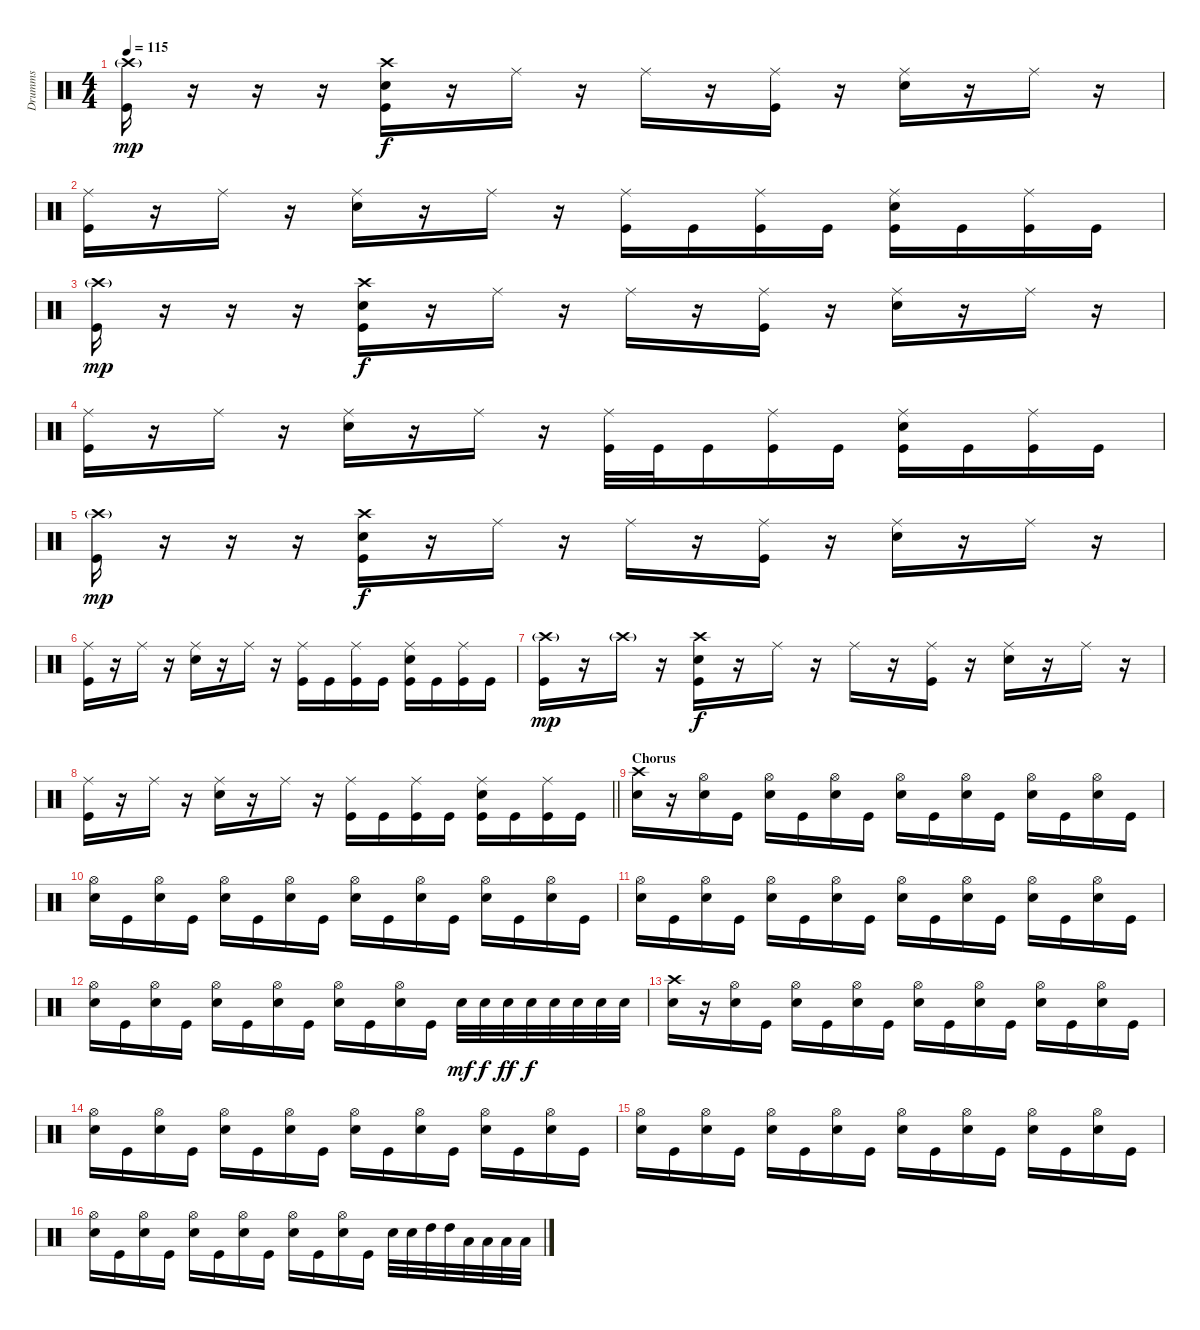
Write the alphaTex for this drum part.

\track ("Drumms" "Drumms") {instrument percussion}
\staff {score}
\articulation defaults
\ts (4 4)
\tempo 115
\clef neutral
\ks c
("Crash high (hit)"{g} "Kick (hit)").16{dy mp} r.16 r.16 r.16 ("Crash high (hit)" "Snare (hit) 2" "Kick (hit)").16{dy f} r.16 "Ride (middle)".16 r.16 "Ride (middle)".16 r.16 ("Ride (middle)" "Kick (hit)").16 r.16 ("Ride (middle)" "Snare (hit) 2").16 r.16 "Ride (middle)".16 r.16 |
("Ride (middle)" "Kick (hit)").16 r.16 "Ride (middle)".16 r.16 ("Ride (middle)" "Snare (hit) 2").16 r.16 "Ride (middle)".16 r.16 ("Ride (middle)" "Kick (hit)").16 "Kick (hit)".16 ("Ride (middle)" "Kick (hit)").16 "Kick (hit)".16 ("Ride (middle)" "Snare (hit) 2" "Kick (hit)").16 "Kick (hit)".16 ("Ride (middle)" "Kick (hit)").16 "Kick (hit)".16 |
("Crash high (hit)"{g} "Kick (hit)").16{dy mp} r.16 r.16 r.16 ("Crash high (hit)" "Snare (hit) 2" "Kick (hit)").16{dy f} r.16 "Ride (middle)".16 r.16 "Ride (middle)".16 r.16 ("Ride (middle)" "Kick (hit)").16 r.16 ("Ride (middle)" "Snare (hit) 2").16 r.16 "Ride (middle)".16 r.16 |
("Ride (middle)" "Kick (hit)").16 r.16 "Ride (middle)".16 r.16 ("Ride (middle)" "Snare (hit) 2").16 r.16 "Ride (middle)".16 r.16 ("Ride (middle)" "Kick (hit)").32 "Kick (hit)".32 "Kick (hit)".16 ("Ride (middle)" "Kick (hit)").16 "Kick (hit)".16 ("Ride (middle)" "Snare (hit) 2" "Kick (hit)").16 "Kick (hit)".16 ("Ride (middle)" "Kick (hit)").16 "Kick (hit)".16 |
("Crash high (hit)"{g} "Kick (hit)").16{dy mp} r.16 r.16 r.16 ("Crash high (hit)" "Snare (hit) 2" "Kick (hit)").16{dy f} r.16 "Ride (middle)".16 r.16 "Ride (middle)".16 r.16 ("Ride (middle)" "Kick (hit)").16 r.16 ("Ride (middle)" "Snare (hit) 2").16 r.16 "Ride (middle)".16 r.16 |
("Ride (middle)" "Kick (hit)").16 r.16 "Ride (middle)".16 r.16 ("Ride (middle)" "Snare (hit) 2").16 r.16 "Ride (middle)".16 r.16 ("Ride (middle)" "Kick (hit)").16 "Kick (hit)".16 ("Ride (middle)" "Kick (hit)").16 "Kick (hit)".16 ("Ride (middle)" "Snare (hit) 2" "Kick (hit)").16 "Kick (hit)".16 ("Ride (middle)" "Kick (hit)").16 "Kick (hit)".16 |
("Crash high (hit)"{g} "Kick (hit)").16{dy mp} r.16 "Crash high (hit)"{g}.16 r.16 ("Crash high (hit)" "Snare (hit) 2" "Kick (hit)").16{dy f} r.16 "Ride (middle)".16 r.16 "Ride (middle)".16 r.16 ("Ride (middle)" "Kick (hit)").16 r.16 ("Ride (middle)" "Snare (hit) 2").16 r.16 "Ride (middle)".16 r.16 |
\barLineRight lightlight
("Ride (middle)" "Kick (hit)").16 r.16 "Ride (middle)".16 r.16 ("Ride (middle)" "Snare (hit) 2").16 r.16 "Ride (middle)".16 r.16 ("Ride (middle)" "Kick (hit)").16 "Kick (hit)".16 ("Ride (middle)" "Kick (hit)").16 "Kick (hit)".16 ("Ride (middle)" "Snare (hit) 2" "Kick (hit)").16 "Kick (hit)".16 ("Ride (middle)" "Kick (hit)").16 "Kick (hit)".16 |
\section ("" "Chorus")
("Crash high (hit)" "Snare (hit) 2").16 r.16 ("Hi-Hat (open)" "Snare (hit) 2").16 "Kick (hit)".16 ("Hi-Hat (open)" "Snare (hit) 2").16 "Kick (hit)".16 ("Hi-Hat (open)" "Snare (hit) 2").16 "Kick (hit)".16 ("Hi-Hat (open)" "Snare (hit) 2").16 "Kick (hit)".16 ("Hi-Hat (open)" "Snare (hit) 2").16 "Kick (hit)".16 ("Hi-Hat (open)" "Snare (hit) 2").16 "Kick (hit)".16 ("Hi-Hat (open)" "Snare (hit) 2").16 "Kick (hit)".16 |
("Hi-Hat (open)" "Snare (hit) 2").16 "Kick (hit)".16 ("Hi-Hat (open)" "Snare (hit) 2").16 "Kick (hit)".16 ("Hi-Hat (open)" "Snare (hit) 2").16 "Kick (hit)".16 ("Hi-Hat (open)" "Snare (hit) 2").16 "Kick (hit)".16 ("Hi-Hat (open)" "Snare (hit) 2").16 "Kick (hit)".16 ("Hi-Hat (open)" "Snare (hit) 2").16 "Kick (hit)".16 ("Hi-Hat (open)" "Snare (hit) 2").16 "Kick (hit)".16 ("Hi-Hat (open)" "Snare (hit) 2").16 "Kick (hit)".16 |
("Hi-Hat (open)" "Snare (hit) 2").16 "Kick (hit)".16 ("Hi-Hat (open)" "Snare (hit) 2").16 "Kick (hit)".16 ("Hi-Hat (open)" "Snare (hit) 2").16 "Kick (hit)".16 ("Hi-Hat (open)" "Snare (hit) 2").16 "Kick (hit)".16 ("Hi-Hat (open)" "Snare (hit) 2").16 "Kick (hit)".16 ("Hi-Hat (open)" "Snare (hit) 2").16 "Kick (hit)".16 ("Hi-Hat (open)" "Snare (hit) 2").16 "Kick (hit)".16 ("Hi-Hat (open)" "Snare (hit) 2").16 "Kick (hit)".16 |
("Hi-Hat (open)" "Snare (hit) 2").16 "Kick (hit)".16 ("Hi-Hat (open)" "Snare (hit) 2").16 "Kick (hit)".16 ("Hi-Hat (open)" "Snare (hit) 2").16 "Kick (hit)".16 ("Hi-Hat (open)" "Snare (hit) 2").16 "Kick (hit)".16 ("Hi-Hat (open)" "Snare (hit) 2").16 "Kick (hit)".16 ("Hi-Hat (open)" "Snare (hit) 2").16 "Kick (hit)".16 "Snare (hit) 2".32{dy mf} "Snare (hit) 2".32{dy f} "Snare (hit) 2".32{dy ff} "Snare (hit) 2".32{dy f} "Snare (hit) 2".32 "Snare (hit) 2".32 "Snare (hit) 2".32 "Snare (hit) 2".32 |
("Crash high (hit)" "Snare (hit) 2").16 r.16 ("Hi-Hat (open)" "Snare (hit) 2").16 "Kick (hit)".16 ("Hi-Hat (open)" "Snare (hit) 2").16 "Kick (hit)".16 ("Hi-Hat (open)" "Snare (hit) 2").16 "Kick (hit)".16 ("Hi-Hat (open)" "Snare (hit) 2").16 "Kick (hit)".16 ("Hi-Hat (open)" "Snare (hit) 2").16 "Kick (hit)".16 ("Hi-Hat (open)" "Snare (hit) 2").16 "Kick (hit)".16 ("Hi-Hat (open)" "Snare (hit) 2").16 "Kick (hit)".16 |
("Hi-Hat (open)" "Snare (hit) 2").16 "Kick (hit)".16 ("Hi-Hat (open)" "Snare (hit) 2").16 "Kick (hit)".16 ("Hi-Hat (open)" "Snare (hit) 2").16 "Kick (hit)".16 ("Hi-Hat (open)" "Snare (hit) 2").16 "Kick (hit)".16 ("Hi-Hat (open)" "Snare (hit) 2").16 "Kick (hit)".16 ("Hi-Hat (open)" "Snare (hit) 2").16 "Kick (hit)".16 ("Hi-Hat (open)" "Snare (hit) 2").16 "Kick (hit)".16 ("Hi-Hat (open)" "Snare (hit) 2").16 "Kick (hit)".16 |
("Hi-Hat (open)" "Snare (hit) 2").16 "Kick (hit)".16 ("Hi-Hat (open)" "Snare (hit) 2").16 "Kick (hit)".16 ("Hi-Hat (open)" "Snare (hit) 2").16 "Kick (hit)".16 ("Hi-Hat (open)" "Snare (hit) 2").16 "Kick (hit)".16 ("Hi-Hat (open)" "Snare (hit) 2").16 "Kick (hit)".16 ("Hi-Hat (open)" "Snare (hit) 2").16 "Kick (hit)".16 ("Hi-Hat (open)" "Snare (hit) 2").16 "Kick (hit)".16 ("Hi-Hat (open)" "Snare (hit) 2").16 "Kick (hit)".16 |
("Hi-Hat (open)" "Snare (hit) 2").16 "Kick (hit)".16 ("Hi-Hat (open)" "Snare (hit) 2").16 "Kick (hit)".16 ("Hi-Hat (open)" "Snare (hit) 2").16 "Kick (hit)".16 ("Hi-Hat (open)" "Snare (hit) 2").16 "Kick (hit)".16 ("Hi-Hat (open)" "Snare (hit) 2").16 "Kick (hit)".16 ("Hi-Hat (open)" "Snare (hit) 2").16 "Kick (hit)".16 "Snare (hit) 2".32 "Snare (hit) 2".32 "High Tom (hit)".32 "High Tom (hit)".32 "Low Tom (hit)".32 "Low Tom (hit)".32 "Low Floor Tom (hit)".32 "Low Floor Tom (hit)".32
